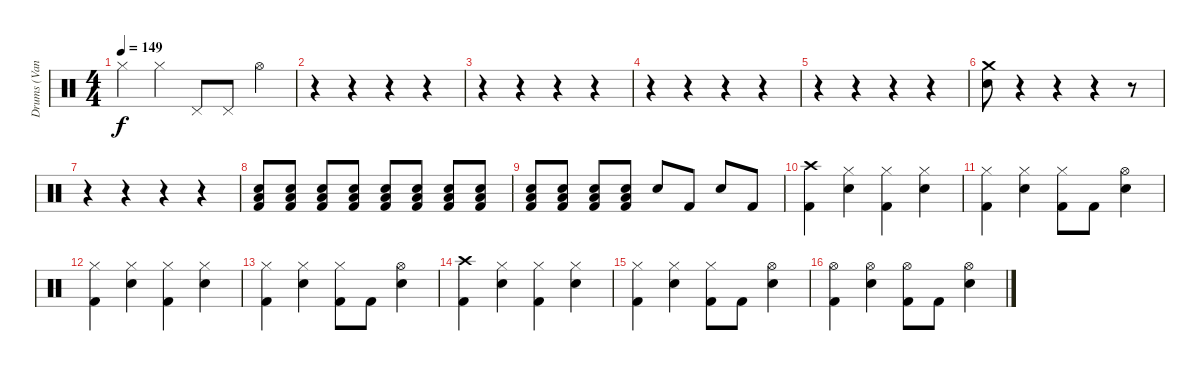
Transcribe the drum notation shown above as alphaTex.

\track ("Drums (Vandel)" "Drums (Van") {instrument percussion}
\staff {score}
\articulation defaults
\ts (4 4)
\tempo 149
\clef neutral
\ks c "Hi-Hat (closed)".4{dy f} "Hi-Hat (closed)".4 "Pedal Hi-Hat (hit)".8 "Pedal Hi-Hat (hit)".8 "Hi-Hat (open)".4
|
r.4 r.4 r.4 r.4 |
r.4 r.4 r.4 r.4 |
r.4 r.4 r.4 r.4 |
r.4 r.4 r.4 r.4 |
("Crash medium (hit)" "Snare (hit)").8 r.4 r.4 r.4 r.8 |
r.4 r.4 r.4 r.4 |
("Snare (hit) 2" "Low Floor Tom (hit)" "Kick (hit) 2").8 ("Snare (hit) 2" "Low Floor Tom (hit)" "Kick (hit) 2").8 ("Snare (hit) 2" "Low Floor Tom (hit)" "Kick (hit) 2").8 ("Snare (hit) 2" "Low Floor Tom (hit)" "Kick (hit) 2").8 ("Snare (hit) 2" "Low Floor Tom (hit)" "Kick (hit) 2").8 ("Snare (hit) 2" "Low Floor Tom (hit)" "Kick (hit) 2").8 ("Snare (hit) 2" "Low Floor Tom (hit)" "Kick (hit) 2").8 ("Snare (hit) 2" "Low Floor Tom (hit)" "Kick (hit) 2").8 |
("Snare (hit) 2" "Low Floor Tom (hit)" "Kick (hit) 2").8 ("Snare (hit) 2" "Low Floor Tom (hit)" "Kick (hit) 2").8 ("Snare (hit) 2" "Low Floor Tom (hit)" "Kick (hit) 2").8 ("Snare (hit) 2" "Low Floor Tom (hit)" "Kick (hit) 2").8 "Snare (hit) 2".8 "Kick (hit) 2".8 "Snare (hit) 2".8 "Kick (hit) 2".8 |
("Crash high (hit)" "Kick (hit) 2").4 ("Hi-Hat (closed)" "Snare (hit) 2").4 ("Hi-Hat (closed)" "Kick (hit) 2").4 ("Hi-Hat (closed)" "Snare (hit) 2").4 |
("Hi-Hat (closed)" "Kick (hit) 2").4 ("Hi-Hat (closed)" "Snare (hit) 2").4 ("Hi-Hat (closed)" "Kick (hit) 2").8 "Kick (hit) 2".8 ("Hi-Hat (open)" "Snare (hit) 2").4 |
("Hi-Hat (closed)" "Kick (hit) 2").4 ("Hi-Hat (closed)" "Snare (hit) 2").4 ("Hi-Hat (closed)" "Kick (hit) 2").4 ("Hi-Hat (closed)" "Snare (hit) 2").4 |
("Hi-Hat (closed)" "Kick (hit) 2").4 ("Hi-Hat (closed)" "Snare (hit) 2").4 ("Hi-Hat (closed)" "Kick (hit) 2").8 "Kick (hit) 2".8 ("Hi-Hat (open)" "Snare (hit) 2").4 |
("Crash high (hit)" "Kick (hit) 2").4 ("Hi-Hat (closed)" "Snare (hit) 2").4 ("Hi-Hat (closed)" "Kick (hit) 2").4 ("Hi-Hat (closed)" "Snare (hit) 2").4 |
("Hi-Hat (closed)" "Kick (hit) 2").4 ("Hi-Hat (closed)" "Snare (hit) 2").4 ("Hi-Hat (closed)" "Kick (hit) 2").8 "Kick (hit) 2".8 ("Hi-Hat (open)" "Snare (hit) 2").4 |
("Hi-Hat (open)" "Kick (hit) 2").4 ("Hi-Hat (open)" "Snare (hit) 2").4 ("Hi-Hat (open)" "Kick (hit) 2").8 "Kick (hit) 2".8 ("Hi-Hat (open)" "Snare (hit) 2").4
